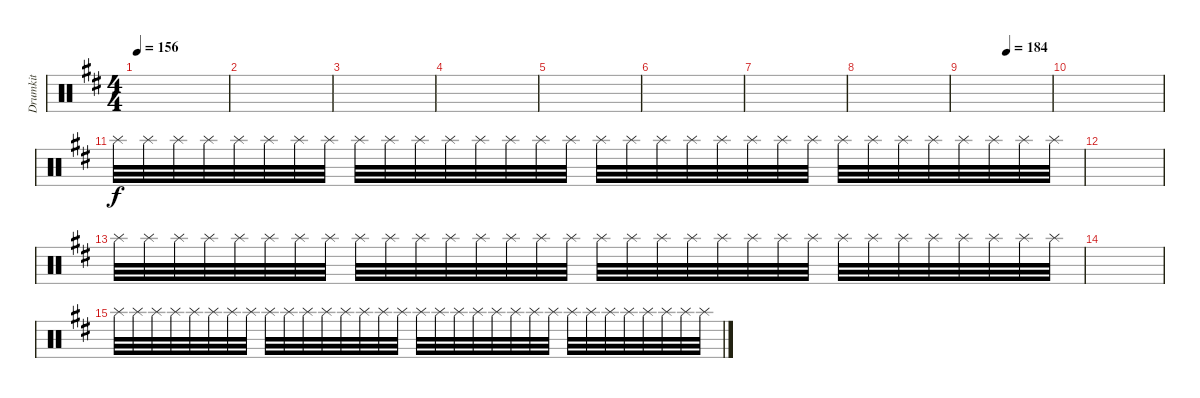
\track ("Drumkit" "Drumkit") {instrument percussion}
\staff {score}
\articulation defaults
\ts (4 4)
\tempo 156
\clef neutral
\ks d
|
|
|
|
|
|
|
|
\tempo (184 0.5)
|
|
"Splash (hit)".32 "Splash (hit)".32 "Splash (hit)".32 "Splash (hit)".32 "Splash (hit)".32 "Splash (hit)".32 "Splash (hit)".32 "Splash (hit)".32 "Splash (hit)".32 "Splash (hit)".32 "Splash (hit)".32 "Splash (hit)".32 "Splash (hit)".32 "Splash (hit)".32 "Splash (hit)".32 "Splash (hit)".32 "Splash (hit)".32 "Splash (hit)".32 "Splash (hit)".32 "Splash (hit)".32 "Splash (hit)".32 "Splash (hit)".32 "Splash (hit)".32 "Splash (hit)".32 "Splash (hit)".32 "Splash (hit)".32 "Splash (hit)".32 "Splash (hit)".32 "Splash (hit)".32 "Splash (hit)".32 "Splash (hit)".32 "Splash (hit)".32 |
|
"Splash (hit)".32 "Splash (hit)".32 "Splash (hit)".32 "Splash (hit)".32 "Splash (hit)".32 "Splash (hit)".32 "Splash (hit)".32 "Splash (hit)".32 "Splash (hit)".32 "Splash (hit)".32 "Splash (hit)".32 "Splash (hit)".32 "Splash (hit)".32 "Splash (hit)".32 "Splash (hit)".32 "Splash (hit)".32 "Splash (hit)".32 "Splash (hit)".32 "Splash (hit)".32 "Splash (hit)".32 "Splash (hit)".32 "Splash (hit)".32 "Splash (hit)".32 "Splash (hit)".32 "Splash (hit)".32 "Splash (hit)".32 "Splash (hit)".32 "Splash (hit)".32 "Splash (hit)".32 "Splash (hit)".32 "Splash (hit)".32 "Splash (hit)".32 |
|
"Splash (hit)".32 "Splash (hit)".32 "Splash (hit)".32 "Splash (hit)".32 "Splash (hit)".32 "Splash (hit)".32 "Splash (hit)".32 "Splash (hit)".32 "Splash (hit)".32 "Splash (hit)".32 "Splash (hit)".32 "Splash (hit)".32 "Splash (hit)".32 "Splash (hit)".32 "Splash (hit)".32 "Splash (hit)".32 "Splash (hit)".32 "Splash (hit)".32 "Splash (hit)".32 "Splash (hit)".32 "Splash (hit)".32 "Splash (hit)".32 "Splash (hit)".32 "Splash (hit)".32 "Splash (hit)".32 "Splash (hit)".32 "Splash (hit)".32 "Splash (hit)".32 "Splash (hit)".32 "Splash (hit)".32 "Splash (hit)".32 "Splash (hit)".32
